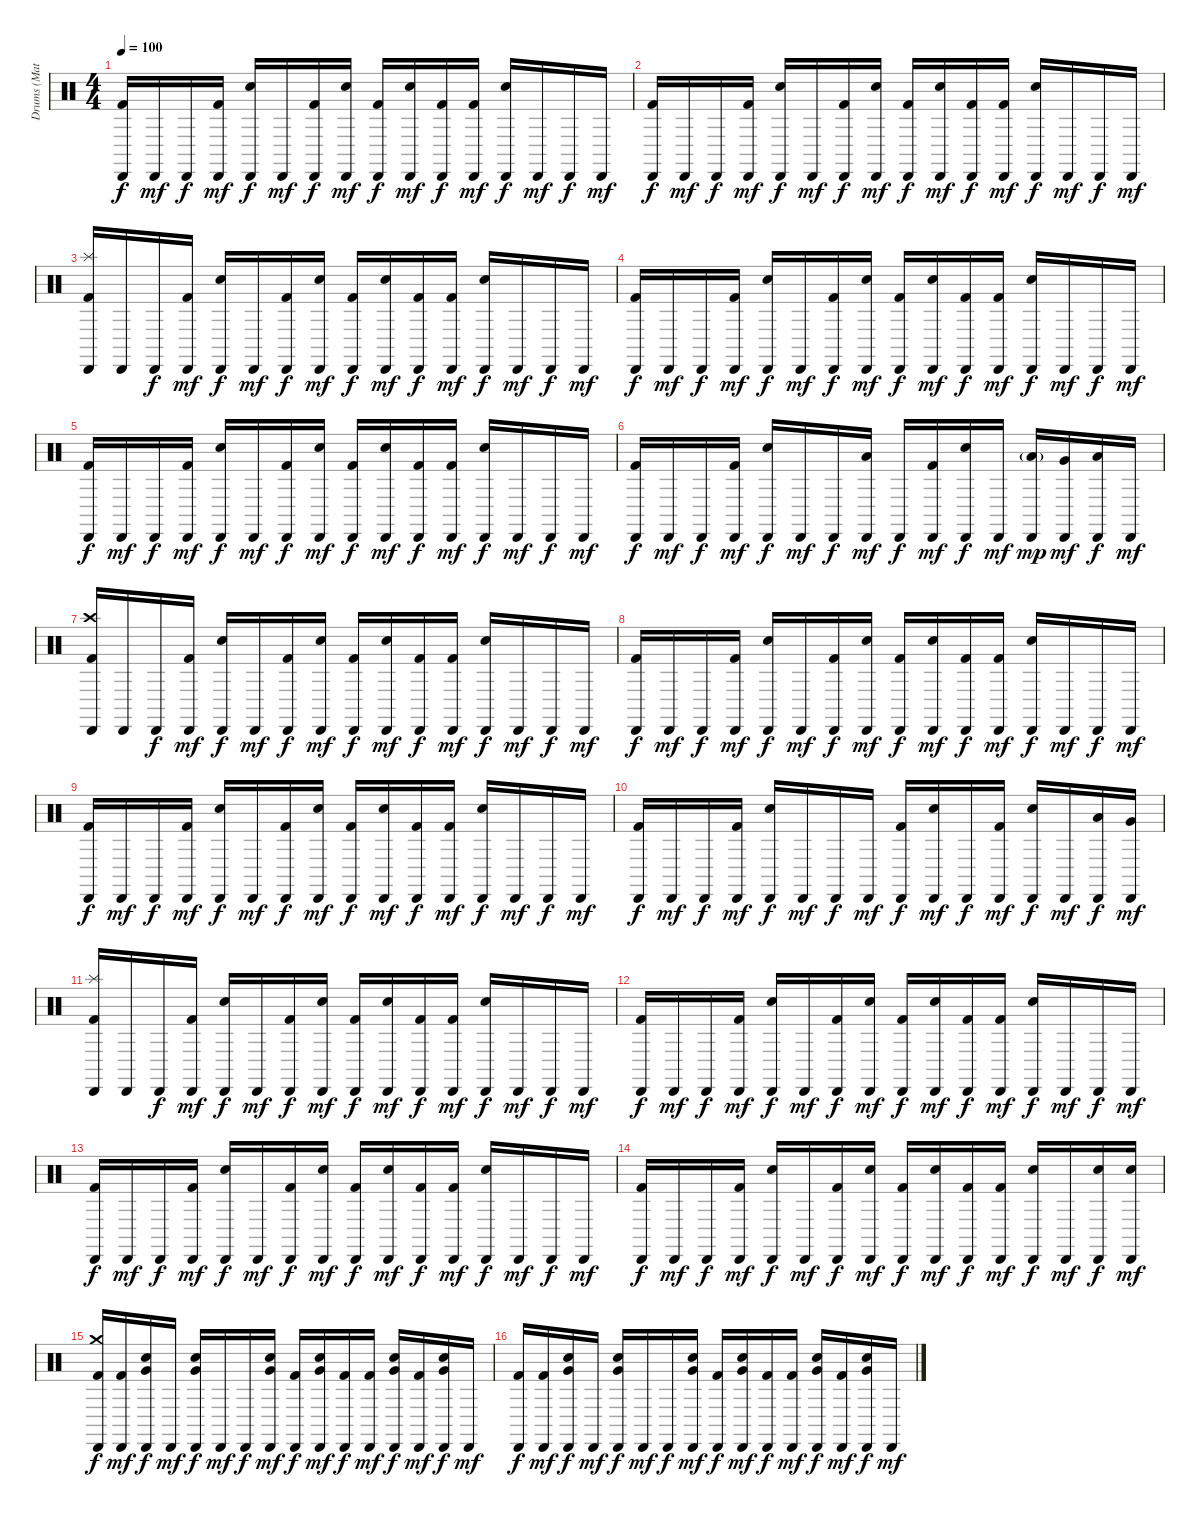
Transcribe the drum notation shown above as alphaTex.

\track ("Drums (Matt Sorum)" "Drums (Mat") {instrument percussion}
\staff {score}
\articulation defaults
\ts (4 4)
\tempo 100
\clef neutral
\ks c
("Cabasa (hit)" "Kick (hit) 2").16{dy f} "Cabasa (hit)".16{dy mf} "Cabasa (hit)".16{dy f} ("Cabasa (hit)" "Kick (hit) 2").16{dy mf} ("Cabasa (hit)" "Electric Snare (hit)").16{dy f} "Cabasa (hit)".16{dy mf} ("Cabasa (hit)" "Kick (hit) 2").16{dy f} ("Cabasa (hit)" "Electric Snare (hit)").16{dy mf} ("Cabasa (hit)" "Kick (hit) 2").16{dy f} ("Cabasa (hit)" "Electric Snare (hit)").16{dy mf} ("Cabasa (hit)" "Kick (hit) 2").16{dy f} ("Cabasa (hit)" "Kick (hit) 2").16{dy mf} ("Cabasa (hit)" "Electric Snare (hit)").16{dy f} "Cabasa (hit)".16{dy mf} "Cabasa (hit)".16{dy f} "Cabasa (hit)".16{dy mf} |
("Cabasa (hit)" "Kick (hit) 2").16{dy f} "Cabasa (hit)".16{dy mf} "Cabasa (hit)".16{dy f} ("Cabasa (hit)" "Kick (hit) 2").16{dy mf} ("Cabasa (hit)" "Electric Snare (hit)").16{dy f} "Cabasa (hit)".16{dy mf} ("Cabasa (hit)" "Kick (hit) 2").16{dy f} ("Cabasa (hit)" "Electric Snare (hit)").16{dy mf} ("Cabasa (hit)" "Kick (hit) 2").16{dy f} ("Cabasa (hit)" "Electric Snare (hit)").16{dy mf} ("Cabasa (hit)" "Kick (hit) 2").16{dy f} ("Cabasa (hit)" "Kick (hit) 2").16{dy mf} ("Cabasa (hit)" "Electric Snare (hit)").16{dy f} "Cabasa (hit)".16{dy mf} "Cabasa (hit)".16{dy f} "Cabasa (hit)".16{dy mf} |
("Cabasa (hit)" "Splash (hit)" "Kick (hit) 2").16 "Cabasa (hit)".16 "Cabasa (hit)".16{dy f} ("Cabasa (hit)" "Kick (hit) 2").16{dy mf} ("Cabasa (hit)" "Electric Snare (hit)").16{dy f} "Cabasa (hit)".16{dy mf} ("Cabasa (hit)" "Kick (hit) 2").16{dy f} ("Cabasa (hit)" "Electric Snare (hit)").16{dy mf} ("Cabasa (hit)" "Kick (hit) 2").16{dy f} ("Cabasa (hit)" "Electric Snare (hit)").16{dy mf} ("Cabasa (hit)" "Kick (hit) 2").16{dy f} ("Cabasa (hit)" "Kick (hit) 2").16{dy mf} ("Cabasa (hit)" "Electric Snare (hit)").16{dy f} "Cabasa (hit)".16{dy mf} "Cabasa (hit)".16{dy f} "Cabasa (hit)".16{dy mf} |
("Cabasa (hit)" "Kick (hit) 2").16{dy f} "Cabasa (hit)".16{dy mf} "Cabasa (hit)".16{dy f} ("Cabasa (hit)" "Kick (hit) 2").16{dy mf} ("Cabasa (hit)" "Electric Snare (hit)").16{dy f} "Cabasa (hit)".16{dy mf} ("Cabasa (hit)" "Kick (hit) 2").16{dy f} ("Cabasa (hit)" "Electric Snare (hit)").16{dy mf} ("Cabasa (hit)" "Kick (hit) 2").16{dy f} ("Cabasa (hit)" "Electric Snare (hit)").16{dy mf} ("Cabasa (hit)" "Kick (hit) 2").16{dy f} ("Cabasa (hit)" "Kick (hit) 2").16{dy mf} ("Cabasa (hit)" "Electric Snare (hit)").16{dy f} "Cabasa (hit)".16{dy mf} "Cabasa (hit)".16{dy f} "Cabasa (hit)".16{dy mf} |
("Cabasa (hit)" "Kick (hit) 2").16{dy f} "Cabasa (hit)".16{dy mf} "Cabasa (hit)".16{dy f} ("Cabasa (hit)" "Kick (hit) 2").16{dy mf} ("Cabasa (hit)" "Electric Snare (hit)").16{dy f} "Cabasa (hit)".16{dy mf} ("Cabasa (hit)" "Kick (hit) 2").16{dy f} ("Cabasa (hit)" "Electric Snare (hit)").16{dy mf} ("Cabasa (hit)" "Kick (hit) 2").16{dy f} ("Cabasa (hit)" "Electric Snare (hit)").16{dy mf} ("Cabasa (hit)" "Kick (hit) 2").16{dy f} ("Cabasa (hit)" "Kick (hit) 2").16{dy mf} ("Cabasa (hit)" "Electric Snare (hit)").16{dy f} "Cabasa (hit)".16{dy mf} "Cabasa (hit)".16{dy f} "Cabasa (hit)".16{dy mf} |
("Cabasa (hit)" "Kick (hit) 2").16{dy f} "Cabasa (hit)".16{dy mf} "Cabasa (hit)".16{dy f} ("Cabasa (hit)" "Kick (hit) 2").16{dy mf} ("Cabasa (hit)" "Electric Snare (hit)").16{dy f} "Cabasa (hit)".16{dy mf} "Cabasa (hit)".16{dy f} ("Cabasa (hit)" "Low Tom (hit)").16{dy mf} "Cabasa (hit)".16{dy f} ("Cabasa (hit)" "Kick (hit) 2").16{dy mf} ("Cabasa (hit)" "Electric Snare (hit)").16{dy f} "Cabasa (hit)".16{dy mf} ("Cabasa (hit)" "Low Tom (hit)"{g}).16{dy mp} ("Cabasa (hit)" "Very Low Tom (hit)").16{dy mf} ("Cabasa (hit)" "Low Floor Tom (hit)").16{dy f} "Cabasa (hit)".16{dy mf} |
("Cabasa (hit)" "Crash high (hit)" "Kick (hit) 2").16 "Cabasa (hit)".16 "Cabasa (hit)".16{dy f} ("Cabasa (hit)" "Kick (hit) 2").16{dy mf} ("Cabasa (hit)" "Electric Snare (hit)").16{dy f} "Cabasa (hit)".16{dy mf} ("Cabasa (hit)" "Kick (hit) 2").16{dy f} ("Cabasa (hit)" "Electric Snare (hit)").16{dy mf} ("Cabasa (hit)" "Kick (hit) 2").16{dy f} ("Cabasa (hit)" "Electric Snare (hit)").16{dy mf} ("Cabasa (hit)" "Kick (hit) 2").16{dy f} ("Cabasa (hit)" "Kick (hit) 2").16{dy mf} ("Cabasa (hit)" "Electric Snare (hit)").16{dy f} "Cabasa (hit)".16{dy mf} "Cabasa (hit)".16{dy f} "Cabasa (hit)".16{dy mf} |
("Cabasa (hit)" "Kick (hit) 2").16{dy f} "Cabasa (hit)".16{dy mf} "Cabasa (hit)".16{dy f} ("Cabasa (hit)" "Kick (hit) 2").16{dy mf} ("Cabasa (hit)" "Electric Snare (hit)").16{dy f} "Cabasa (hit)".16{dy mf} ("Cabasa (hit)" "Kick (hit) 2").16{dy f} ("Cabasa (hit)" "Electric Snare (hit)").16{dy mf} ("Cabasa (hit)" "Kick (hit) 2").16{dy f} ("Cabasa (hit)" "Electric Snare (hit)").16{dy mf} ("Cabasa (hit)" "Kick (hit) 2").16{dy f} ("Cabasa (hit)" "Kick (hit) 2").16{dy mf} ("Cabasa (hit)" "Electric Snare (hit)").16{dy f} "Cabasa (hit)".16{dy mf} "Cabasa (hit)".16{dy f} "Cabasa (hit)".16{dy mf} |
("Cabasa (hit)" "Kick (hit) 2").16{dy f} "Cabasa (hit)".16{dy mf} "Cabasa (hit)".16{dy f} ("Cabasa (hit)" "Kick (hit) 2").16{dy mf} ("Cabasa (hit)" "Electric Snare (hit)").16{dy f} "Cabasa (hit)".16{dy mf} ("Cabasa (hit)" "Kick (hit) 2").16{dy f} ("Cabasa (hit)" "Electric Snare (hit)").16{dy mf} ("Cabasa (hit)" "Kick (hit) 2").16{dy f} ("Cabasa (hit)" "Electric Snare (hit)").16{dy mf} ("Cabasa (hit)" "Kick (hit) 2").16{dy f} ("Cabasa (hit)" "Kick (hit) 2").16{dy mf} ("Cabasa (hit)" "Electric Snare (hit)").16{dy f} "Cabasa (hit)".16{dy mf} "Cabasa (hit)".16{dy f} "Cabasa (hit)".16{dy mf} |
("Cabasa (hit)" "Kick (hit) 2").16{dy f} "Cabasa (hit)".16{dy mf} "Cabasa (hit)".16{dy f} ("Cabasa (hit)" "Kick (hit) 2").16{dy mf} ("Cabasa (hit)" "Electric Snare (hit)").16{dy f} "Cabasa (hit)".16{dy mf} "Cabasa (hit)".16{dy f} "Cabasa (hit)".16{dy mf} ("Cabasa (hit)" "Kick (hit) 2").16{dy f} ("Cabasa (hit)" "Electric Snare (hit)").16{dy mf} "Cabasa (hit)".16{dy f} ("Cabasa (hit)" "Kick (hit) 2").16{dy mf} ("Cabasa (hit)" "Electric Snare (hit)").16{dy f} "Cabasa (hit)".16{dy mf} ("Cabasa (hit)" "Low Tom (hit)").16{dy f} ("Cabasa (hit)" "Very Low Tom (hit)").16{dy mf} |
("Cabasa (hit)" "Splash (hit)" "Kick (hit) 2").16 "Cabasa (hit)".16 "Cabasa (hit)".16{dy f} ("Cabasa (hit)" "Kick (hit) 2").16{dy mf} ("Cabasa (hit)" "Electric Snare (hit)").16{dy f} "Cabasa (hit)".16{dy mf} ("Cabasa (hit)" "Kick (hit) 2").16{dy f} ("Cabasa (hit)" "Electric Snare (hit)").16{dy mf} ("Cabasa (hit)" "Kick (hit) 2").16{dy f} ("Cabasa (hit)" "Electric Snare (hit)").16{dy mf} ("Cabasa (hit)" "Kick (hit) 2").16{dy f} ("Cabasa (hit)" "Kick (hit) 2").16{dy mf} ("Cabasa (hit)" "Electric Snare (hit)").16{dy f} "Cabasa (hit)".16{dy mf} "Cabasa (hit)".16{dy f} "Cabasa (hit)".16{dy mf} |
("Cabasa (hit)" "Kick (hit) 2").16{dy f} "Cabasa (hit)".16{dy mf} "Cabasa (hit)".16{dy f} ("Cabasa (hit)" "Kick (hit) 2").16{dy mf} ("Cabasa (hit)" "Electric Snare (hit)").16{dy f} "Cabasa (hit)".16{dy mf} ("Cabasa (hit)" "Kick (hit) 2").16{dy f} ("Cabasa (hit)" "Electric Snare (hit)").16{dy mf} ("Cabasa (hit)" "Kick (hit) 2").16{dy f} ("Cabasa (hit)" "Electric Snare (hit)").16{dy mf} ("Cabasa (hit)" "Kick (hit) 2").16{dy f} ("Cabasa (hit)" "Kick (hit) 2").16{dy mf} ("Cabasa (hit)" "Electric Snare (hit)").16{dy f} "Cabasa (hit)".16{dy mf} "Cabasa (hit)".16{dy f} "Cabasa (hit)".16{dy mf} |
("Cabasa (hit)" "Kick (hit) 2").16{dy f} "Cabasa (hit)".16{dy mf} "Cabasa (hit)".16{dy f} ("Cabasa (hit)" "Kick (hit) 2").16{dy mf} ("Cabasa (hit)" "Electric Snare (hit)").16{dy f} "Cabasa (hit)".16{dy mf} ("Cabasa (hit)" "Kick (hit) 2").16{dy f} ("Cabasa (hit)" "Electric Snare (hit)").16{dy mf} ("Cabasa (hit)" "Kick (hit) 2").16{dy f} ("Cabasa (hit)" "Electric Snare (hit)").16{dy mf} ("Cabasa (hit)" "Kick (hit) 2").16{dy f} ("Cabasa (hit)" "Kick (hit) 2").16{dy mf} ("Cabasa (hit)" "Electric Snare (hit)").16{dy f} "Cabasa (hit)".16{dy mf} "Cabasa (hit)".16{dy f} "Cabasa (hit)".16{dy mf} |
("Cabasa (hit)" "Kick (hit) 2").16{dy f} "Cabasa (hit)".16{dy mf} "Cabasa (hit)".16{dy f} ("Cabasa (hit)" "Kick (hit) 2").16{dy mf} ("Cabasa (hit)" "Electric Snare (hit)").16{dy f} "Cabasa (hit)".16{dy mf} ("Cabasa (hit)" "Kick (hit) 2").16{dy f} ("Cabasa (hit)" "Electric Snare (hit)").16{dy mf} ("Cabasa (hit)" "Kick (hit) 2").16{dy f} ("Cabasa (hit)" "Electric Snare (hit)").16{dy mf} ("Cabasa (hit)" "Kick (hit) 2").16{dy f} ("Cabasa (hit)" "Kick (hit) 2").16{dy mf} ("Cabasa (hit)" "Electric Snare (hit)").16{dy f} "Cabasa (hit)".16{dy mf} ("Cabasa (hit)" "Electric Snare (hit)").16{dy f} ("Cabasa (hit)" "Electric Snare (hit)").16{dy mf} |
("Cabasa (hit)" "Crash medium (hit)" "Kick (hit) 2").16{dy f} ("Cabasa (hit)" "Kick (hit) 2").16{dy mf} ("Cabasa (hit)" "Very Low Tom (hit)" "Electric Snare (hit)").16{dy f} "Cabasa (hit)".16{dy mf} ("Cabasa (hit)" "Very Low Tom (hit)" "Electric Snare (hit)").16{dy f} "Cabasa (hit)".16{dy mf} "Cabasa (hit)".16{dy f} ("Cabasa (hit)" "Very Low Tom (hit)" "Electric Snare (hit)").16{dy mf} ("Cabasa (hit)" "Kick (hit) 2").16{dy f} ("Cabasa (hit)" "Very Low Tom (hit)" "Electric Snare (hit)").16{dy mf} ("Cabasa (hit)" "Kick (hit) 2").16{dy f} ("Cabasa (hit)" "Kick (hit) 2").16{dy mf} ("Cabasa (hit)" "Very Low Tom (hit)" "Electric Snare (hit)").16{dy f} ("Cabasa (hit)" "Kick (hit) 2").16{dy mf} ("Cabasa (hit)" "Very Low Tom (hit)" "Electric Snare (hit)").16{dy f} "Cabasa (hit)".16{dy mf} |
("Cabasa (hit)" "Kick (hit) 2").16{dy f} ("Cabasa (hit)" "Kick (hit) 2").16{dy mf} ("Cabasa (hit)" "Very Low Tom (hit)" "Electric Snare (hit)").16{dy f} "Cabasa (hit)".16{dy mf} ("Cabasa (hit)" "Very Low Tom (hit)" "Electric Snare (hit)").16{dy f} "Cabasa (hit)".16{dy mf} "Cabasa (hit)".16{dy f} ("Cabasa (hit)" "Very Low Tom (hit)" "Electric Snare (hit)").16{dy mf} ("Cabasa (hit)" "Kick (hit) 2").16{dy f} ("Cabasa (hit)" "Very Low Tom (hit)" "Electric Snare (hit)").16{dy mf} ("Cabasa (hit)" "Kick (hit) 2").16{dy f} ("Cabasa (hit)" "Kick (hit) 2").16{dy mf} ("Cabasa (hit)" "Very Low Tom (hit)" "Electric Snare (hit)").16{dy f} ("Cabasa (hit)" "Kick (hit) 2").16{dy mf} ("Cabasa (hit)" "Very Low Tom (hit)" "Electric Snare (hit)").16{dy f} "Cabasa (hit)".16{dy mf}
